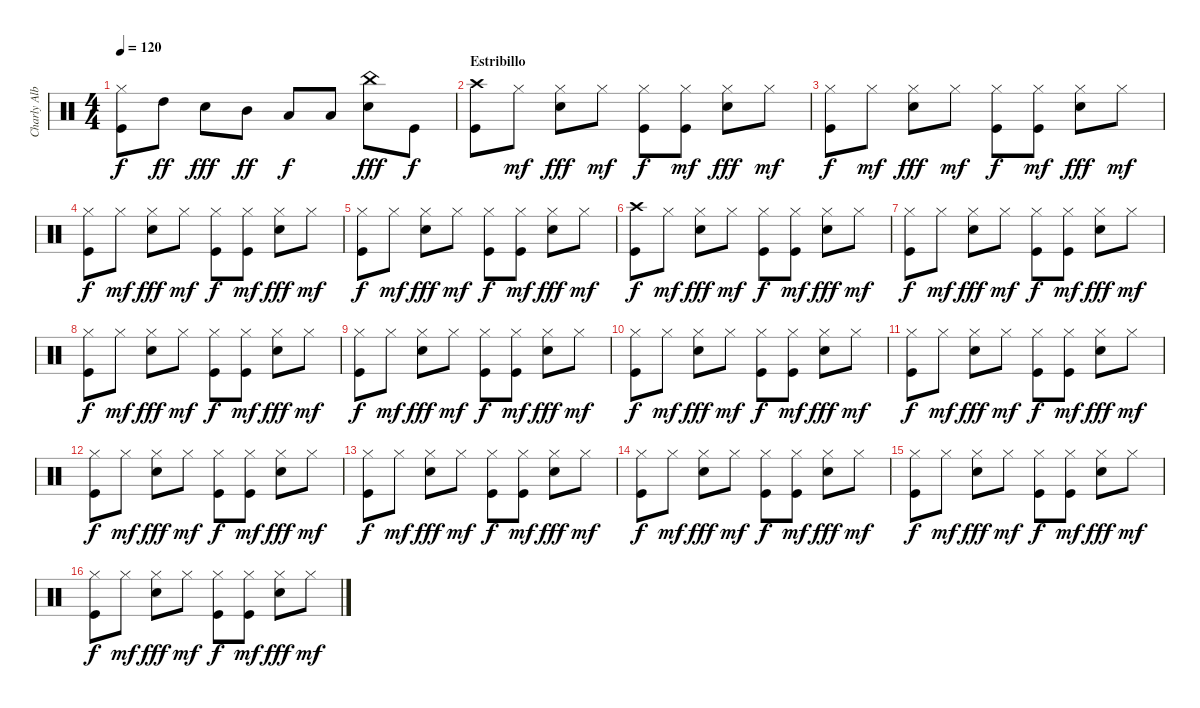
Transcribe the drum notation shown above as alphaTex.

\track ("Charly Alberti" "Charly Alb") {instrument percussion}
\staff {score}
\articulation defaults
\ts (4 4)
\tempo 120
\clef neutral
\ks c
("Kick (hit)" "Hi-Hat (closed)").8{dy f} "High Tom (hit)".8{dy ff} "Snare (hit) 2".8{dy fff} "Mid Tom (hit)".8{dy ff} "Low Tom (hit)".8{dy f} "Low Tom (hit)".8 ("Snare (hit) 2" "China (hit)").8{dy fff} "Kick (hit)".8{dy f} |
\section ("" "Estribillo")
("Kick (hit)" "Crash high (hit)").8 "Hi-Hat (closed)".8{dy mf} ("Snare (hit) 2" "Hi-Hat (closed)").8{dy fff} "Hi-Hat (closed)".8{dy mf} ("Kick (hit)" "Hi-Hat (closed)").8{dy f} ("Kick (hit)" "Hi-Hat (closed)").8{dy mf} ("Snare (hit) 2" "Hi-Hat (closed)").8{dy fff} "Hi-Hat (closed)".8{dy mf} |
("Kick (hit)" "Hi-Hat (closed)").8{dy f} "Hi-Hat (closed)".8{dy mf} ("Snare (hit) 2" "Hi-Hat (closed)").8{dy fff} "Hi-Hat (closed)".8{dy mf} ("Kick (hit)" "Hi-Hat (closed)").8{dy f} ("Kick (hit)" "Hi-Hat (closed)").8{dy mf} ("Snare (hit) 2" "Hi-Hat (closed)").8{dy fff} "Hi-Hat (closed)".8{dy mf} |
("Kick (hit)" "Hi-Hat (closed)").8{dy f} "Hi-Hat (closed)".8{dy mf} ("Snare (hit) 2" "Hi-Hat (closed)").8{dy fff} "Hi-Hat (closed)".8{dy mf} ("Kick (hit)" "Hi-Hat (closed)").8{dy f} ("Kick (hit)" "Hi-Hat (closed)").8{dy mf} ("Snare (hit) 2" "Hi-Hat (closed)").8{dy fff} "Hi-Hat (closed)".8{dy mf} |
("Kick (hit)" "Hi-Hat (closed)").8{dy f} "Hi-Hat (closed)".8{dy mf} ("Snare (hit) 2" "Hi-Hat (closed)").8{dy fff} "Hi-Hat (closed)".8{dy mf} ("Kick (hit)" "Hi-Hat (closed)").8{dy f} ("Kick (hit)" "Hi-Hat (closed)").8{dy mf} ("Snare (hit) 2" "Hi-Hat (closed)").8{dy fff} "Hi-Hat (closed)".8{dy mf} |
("Kick (hit)" "Crash high (hit)").8{dy f} "Hi-Hat (closed)".8{dy mf} ("Snare (hit) 2" "Hi-Hat (closed)").8{dy fff} "Hi-Hat (closed)".8{dy mf} ("Kick (hit)" "Hi-Hat (closed)").8{dy f} ("Kick (hit)" "Hi-Hat (closed)").8{dy mf} ("Snare (hit) 2" "Hi-Hat (closed)").8{dy fff} "Hi-Hat (closed)".8{dy mf} |
("Kick (hit)" "Hi-Hat (closed)").8{dy f} "Hi-Hat (closed)".8{dy mf} ("Snare (hit) 2" "Hi-Hat (closed)").8{dy fff} "Hi-Hat (closed)".8{dy mf} ("Kick (hit)" "Hi-Hat (closed)").8{dy f} ("Kick (hit)" "Hi-Hat (closed)").8{dy mf} ("Snare (hit) 2" "Hi-Hat (closed)").8{dy fff} "Hi-Hat (closed)".8{dy mf} |
("Kick (hit)" "Hi-Hat (closed)").8{dy f} "Hi-Hat (closed)".8{dy mf} ("Snare (hit) 2" "Hi-Hat (closed)").8{dy fff} "Hi-Hat (closed)".8{dy mf} ("Kick (hit)" "Hi-Hat (closed)").8{dy f} ("Kick (hit)" "Hi-Hat (closed)").8{dy mf} ("Snare (hit) 2" "Hi-Hat (closed)").8{dy fff} "Hi-Hat (closed)".8{dy mf} |
("Kick (hit)" "Hi-Hat (closed)").8{dy f} "Hi-Hat (closed)".8{dy mf} ("Snare (hit) 2" "Hi-Hat (closed)").8{dy fff} "Hi-Hat (closed)".8{dy mf} ("Kick (hit)" "Hi-Hat (closed)").8{dy f} ("Kick (hit)" "Hi-Hat (closed)").8{dy mf} ("Snare (hit) 2" "Hi-Hat (closed)").8{dy fff} "Hi-Hat (closed)".8{dy mf} |
("Kick (hit)" "Hi-Hat (closed)").8{dy f} "Hi-Hat (closed)".8{dy mf} ("Snare (hit) 2" "Hi-Hat (closed)").8{dy fff} "Hi-Hat (closed)".8{dy mf} ("Kick (hit)" "Hi-Hat (closed)").8{dy f} ("Kick (hit)" "Hi-Hat (closed)").8{dy mf} ("Snare (hit) 2" "Hi-Hat (closed)").8{dy fff} "Hi-Hat (closed)".8{dy mf} |
("Kick (hit)" "Hi-Hat (closed)").8{dy f} "Hi-Hat (closed)".8{dy mf} ("Snare (hit) 2" "Hi-Hat (closed)").8{dy fff} "Hi-Hat (closed)".8{dy mf} ("Kick (hit)" "Hi-Hat (closed)").8{dy f} ("Kick (hit)" "Hi-Hat (closed)").8{dy mf} ("Snare (hit) 2" "Hi-Hat (closed)").8{dy fff} "Hi-Hat (closed)".8{dy mf} |
("Kick (hit)" "Hi-Hat (closed)").8{dy f} "Hi-Hat (closed)".8{dy mf} ("Snare (hit) 2" "Hi-Hat (closed)").8{dy fff} "Hi-Hat (closed)".8{dy mf} ("Kick (hit)" "Hi-Hat (closed)").8{dy f} ("Kick (hit)" "Hi-Hat (closed)").8{dy mf} ("Snare (hit) 2" "Hi-Hat (closed)").8{dy fff} "Hi-Hat (closed)".8{dy mf} |
("Kick (hit)" "Hi-Hat (closed)").8{dy f} "Hi-Hat (closed)".8{dy mf} ("Snare (hit) 2" "Hi-Hat (closed)").8{dy fff} "Hi-Hat (closed)".8{dy mf} ("Kick (hit)" "Hi-Hat (closed)").8{dy f} ("Kick (hit)" "Hi-Hat (closed)").8{dy mf} ("Snare (hit) 2" "Hi-Hat (closed)").8{dy fff} "Hi-Hat (closed)".8{dy mf} |
("Kick (hit)" "Hi-Hat (closed)").8{dy f} "Hi-Hat (closed)".8{dy mf} ("Snare (hit) 2" "Hi-Hat (closed)").8{dy fff} "Hi-Hat (closed)".8{dy mf} ("Kick (hit)" "Hi-Hat (closed)").8{dy f} ("Kick (hit)" "Hi-Hat (closed)").8{dy mf} ("Snare (hit) 2" "Hi-Hat (closed)").8{dy fff} "Hi-Hat (closed)".8{dy mf} |
("Kick (hit)" "Hi-Hat (closed)").8{dy f} "Hi-Hat (closed)".8{dy mf} ("Snare (hit) 2" "Hi-Hat (closed)").8{dy fff} "Hi-Hat (closed)".8{dy mf} ("Kick (hit)" "Hi-Hat (closed)").8{dy f} ("Kick (hit)" "Hi-Hat (closed)").8{dy mf} ("Snare (hit) 2" "Hi-Hat (closed)").8{dy fff} "Hi-Hat (closed)".8{dy mf} |
("Kick (hit)" "Hi-Hat (closed)").8{dy f} "Hi-Hat (closed)".8{dy mf} ("Snare (hit) 2" "Hi-Hat (closed)").8{dy fff} "Hi-Hat (closed)".8{dy mf} ("Kick (hit)" "Hi-Hat (closed)").8{dy f} ("Kick (hit)" "Hi-Hat (closed)").8{dy mf} ("Snare (hit) 2" "Hi-Hat (closed)").8{dy fff} "Hi-Hat (closed)".8{dy mf}
